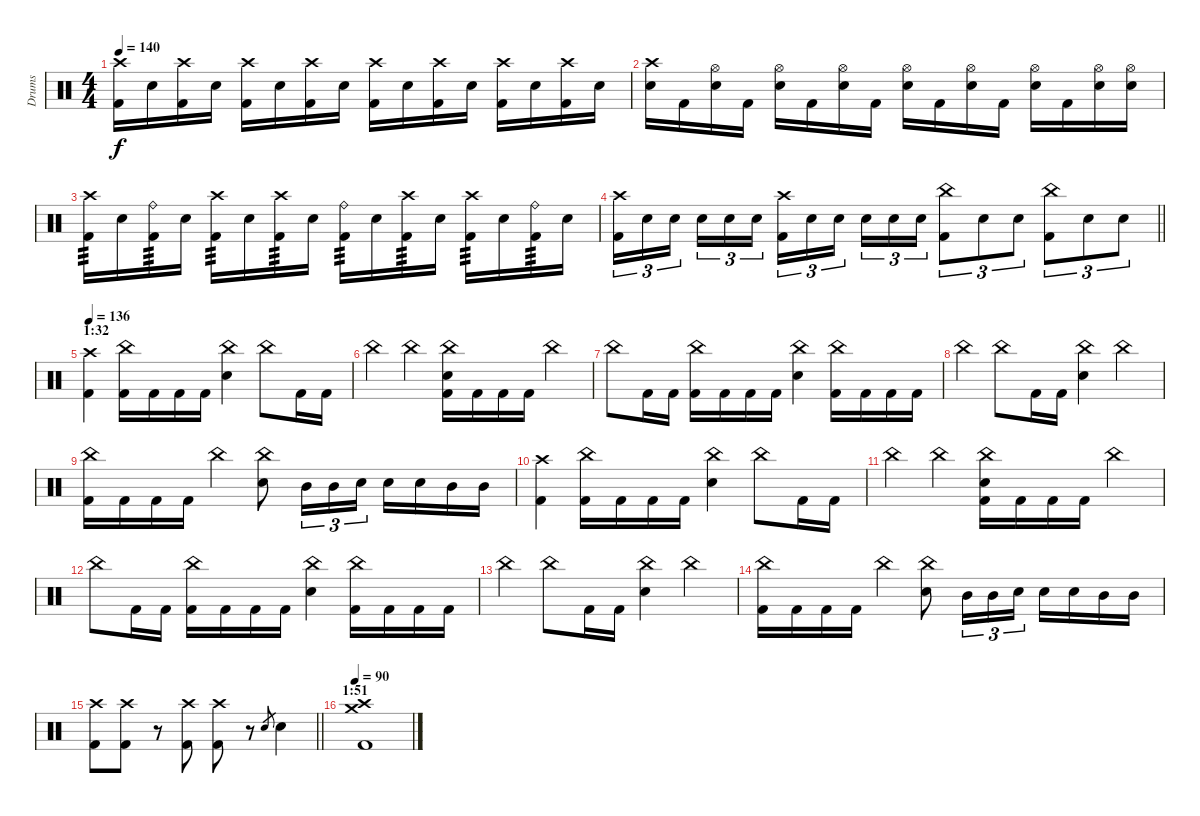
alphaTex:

\track ("Drums" "Drums") {instrument percussion}
\staff {score}
\articulation defaults
\ts (4 4)
\tempo 140
\clef neutral
\ks c
("Crash high (hit)" "Kick (hit) 2").16{dy f} "Electric Snare (hit)".16 ("Crash high (hit)" "Kick (hit) 2").16 "Electric Snare (hit)".16 ("Crash high (hit)" "Kick (hit) 2").16 "Electric Snare (hit)".16 ("Crash high (hit)" "Kick (hit) 2").16 "Electric Snare (hit)".16 ("Crash high (hit)" "Kick (hit) 2").16 "Electric Snare (hit)".16 ("Crash high (hit)" "Kick (hit) 2").16 "Electric Snare (hit)".16 ("Crash high (hit)" "Kick (hit) 2").16 "Electric Snare (hit)".16 ("Crash high (hit)" "Kick (hit) 2").16 "Electric Snare (hit)".16 |
("Electric Snare (hit)" "Crash high (hit)").16 "Kick (hit) 2".16 ("Electric Snare (hit)" "Hi-Hat (open)").16 "Kick (hit) 2".16 ("Electric Snare (hit)" "Hi-Hat (open)").16 "Kick (hit) 2".16 ("Electric Snare (hit)" "Hi-Hat (open)").16 "Kick (hit) 2".16 ("Electric Snare (hit)" "Hi-Hat (open)").16 "Kick (hit) 2".16 ("Electric Snare (hit)" "Hi-Hat (open)").16 "Kick (hit) 2".16 ("Electric Snare (hit)" "Hi-Hat (open)").16 "Kick (hit) 2".16 ("Electric Snare (hit)" "Hi-Hat (open)").16 ("Electric Snare (hit)" "Hi-Hat (open)").16 |
("Crash high (hit)" "Kick (hit) 2").16{tp 3} "Electric Snare (hit)".16 ("Kick (hit) 2" "Ride (bell)").16{tp 3} "Electric Snare (hit)".16 ("Crash high (hit)" "Kick (hit) 2").16{tp 3} "Electric Snare (hit)".16 ("Crash high (hit)" "Kick (hit) 2").16{tp 3} "Electric Snare (hit)".16 ("Kick (hit) 2" "Ride (bell)").16{tp 3} "Electric Snare (hit)".16 ("Crash high (hit)" "Kick (hit) 2").16{tp 3} "Electric Snare (hit)".16 ("Crash high (hit)" "Kick (hit) 2").16{tp 3} "Electric Snare (hit)".16 ("Kick (hit) 2" "Ride (bell)").16{tp 3} "Electric Snare (hit)".16 |
\barLineRight lightlight
("Kick (hit) 2" "Crash high (hit)").16{tu (3 2)} "Electric Snare (hit)".16{tu (3 2)} "Electric Snare (hit)".16{tu (3 2) beam splitsecondary} "Electric Snare (hit)".16{tu (3 2)} "Electric Snare (hit)".16{tu (3 2)} "Electric Snare (hit)".16{tu (3 2)} ("Crash high (hit)" "Kick (hit) 2").16{tu (3 2)} "Electric Snare (hit)".16{tu (3 2)} "Electric Snare (hit)".16{tu (3 2) beam splitsecondary} "Electric Snare (hit)".16{tu (3 2)} "Electric Snare (hit)".16{tu (3 2)} "Electric Snare (hit)".16{tu (3 2)} ("China (hit)" "Kick (hit) 2").8{tu (3 2)} "Electric Snare (hit)".8{tu (3 2)} "Electric Snare (hit)".8{tu (3 2)} ("China (hit)" "Kick (hit) 2").8{tu (3 2)} "Electric Snare (hit)".8{tu (3 2)} "Electric Snare (hit)".8{tu (3 2)} |
\section ("" "1:32")
\tempo 136
("Crash high (hit)" "Kick (hit) 2").4 ("China (hit)" "Kick (hit) 2").16 "Kick (hit) 2".16 "Kick (hit) 2".16 "Kick (hit) 2".16 ("China (hit)" "Electric Snare (hit)").4 "China (hit)".8 "Kick (hit) 2".16 "Kick (hit) 2".16 |
"China (hit)".4 "China (hit)".4 ("China (hit)" "Electric Snare (hit)" "Kick (hit) 2").16 "Kick (hit) 2".16 "Kick (hit) 2".16 "Kick (hit) 2".16 "China (hit)".4 |
"China (hit)".8 "Kick (hit) 2".16 "Kick (hit) 2".16 ("China (hit)" "Kick (hit) 2").16 "Kick (hit) 2".16 "Kick (hit) 2".16 "Kick (hit) 2".16 ("China (hit)" "Electric Snare (hit)").4 ("China (hit)" "Kick (hit) 2").16 "Kick (hit) 2".16 "Kick (hit) 2".16 "Kick (hit) 2".16 |
"China (hit)".4 "China (hit)".8 "Kick (hit) 2".16 "Kick (hit) 2".16 ("China (hit)" "Electric Snare (hit)").4 "China (hit)".4 |
("China (hit)" "Kick (hit) 2").16 "Kick (hit) 2".16 "Kick (hit) 2".16 "Kick (hit) 2".16 "China (hit)".4 ("China (hit)" "Electric Snare (hit)").8 "Mid Tom (hit)".16{tu (3 2)} "Mid Tom (hit)".16{tu (3 2)} "Electric Snare (hit)".16{tu (3 2)} "Electric Snare (hit)".16 "Electric Snare (hit)".16 "Mid Tom (hit)".16 "Mid Tom (hit)".16 |
("Crash high (hit)" "Kick (hit) 2").4 ("China (hit)" "Kick (hit) 2").16 "Kick (hit) 2".16 "Kick (hit) 2".16 "Kick (hit) 2".16 ("China (hit)" "Electric Snare (hit)").4 "China (hit)".8 "Kick (hit) 2".16 "Kick (hit) 2".16 |
"China (hit)".4 "China (hit)".4 ("China (hit)" "Electric Snare (hit)" "Kick (hit) 2").16 "Kick (hit) 2".16 "Kick (hit) 2".16 "Kick (hit) 2".16 "China (hit)".4 |
"China (hit)".8 "Kick (hit) 2".16 "Kick (hit) 2".16 ("China (hit)" "Kick (hit) 2").16 "Kick (hit) 2".16 "Kick (hit) 2".16 "Kick (hit) 2".16 ("China (hit)" "Electric Snare (hit)").4 ("China (hit)" "Kick (hit) 2").16 "Kick (hit) 2".16 "Kick (hit) 2".16 "Kick (hit) 2".16 |
"China (hit)".4 "China (hit)".8 "Kick (hit) 2".16 "Kick (hit) 2".16 ("China (hit)" "Electric Snare (hit)").4 "China (hit)".4 |
("China (hit)" "Kick (hit) 2").16 "Kick (hit) 2".16 "Kick (hit) 2".16 "Kick (hit) 2".16 "China (hit)".4 ("China (hit)" "Electric Snare (hit)").8 "Mid Tom (hit)".16{tu (3 2)} "Mid Tom (hit)".16{tu (3 2)} "Electric Snare (hit)".16{tu (3 2)} "Electric Snare (hit)".16 "Electric Snare (hit)".16 "Mid Tom (hit)".16 "Mid Tom (hit)".16 |
\barLineRight lightlight
("Crash high (hit)" "Kick (hit) 2").8 ("Crash high (hit)" "Kick (hit) 2").8 r.8{volume 0} ("Crash high (hit)" "Kick (hit) 2").8{volume 13} ("Kick (hit) 2" "Crash high (hit)").8 r.8{volume 0} "Electric Snare (hit)".8{gr} "Electric Snare (hit)".4{volume 13} |
\section ("" "1:51")
\tempo 90
("Crash high (hit)" "Crash medium (hit)" "Kick (hit) 2").1
